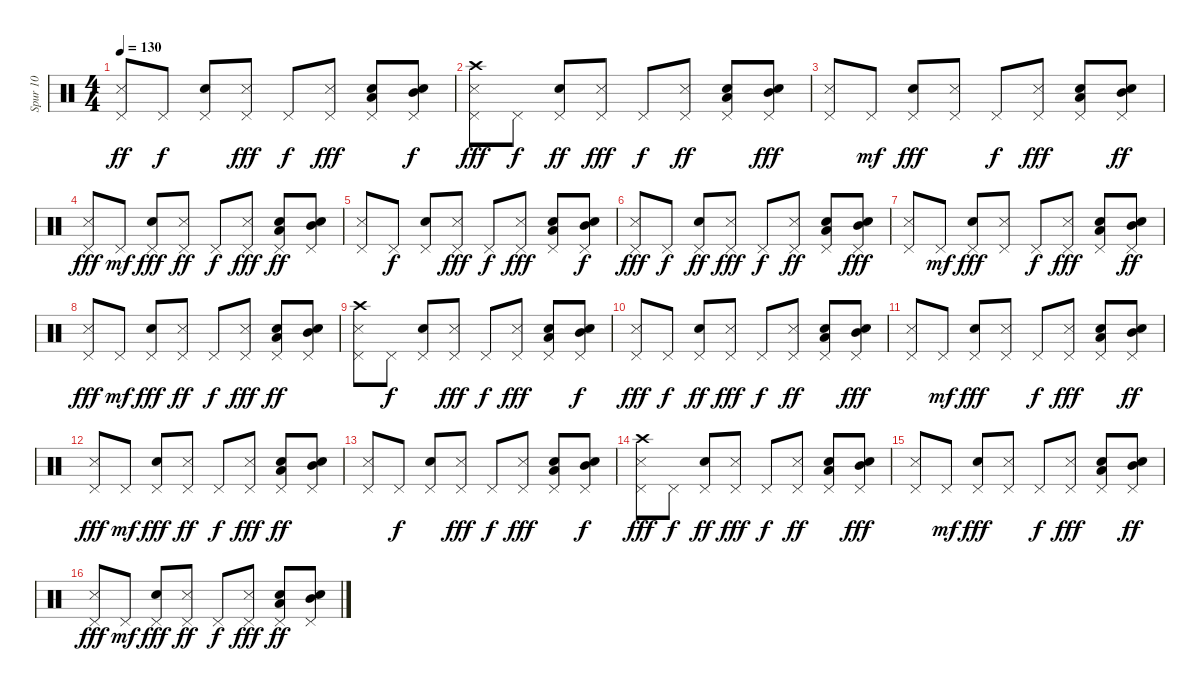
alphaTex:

\track ("Spur 10" "Spur 10") {instrument percussion}
\staff {score}
\articulation defaults
\ts (4 4)
\tempo 130
\clef neutral
\ks c
("Metronome (hit)" "Pedal Hi-Hat (hit)").8{dy ff} "Pedal Hi-Hat (hit)".8{dy f} ("Snare (hit) 2" "Pedal Hi-Hat (hit)").8 ("Metronome (hit)" "Pedal Hi-Hat (hit)").8{dy fff} "Pedal Hi-Hat (hit)".8{dy f} ("Metronome (hit)" "Pedal Hi-Hat (hit)").8{dy fff} ("Snare (hit) 2" "Low Tom (hit)" "Pedal Hi-Hat (hit)").8 ("Snare (hit) 2" "Mid Tom (hit)" "Pedal Hi-Hat (hit)").8{dy f} |
("Crash high (hit)" "Pedal Hi-Hat (hit)" "Metronome (hit)").8{dy fff} "Pedal Hi-Hat (hit)".8{dy f} ("Snare (hit) 2" "Pedal Hi-Hat (hit)").8{dy ff} ("Metronome (hit)" "Pedal Hi-Hat (hit)").8{dy fff} "Pedal Hi-Hat (hit)".8{dy f} ("Metronome (hit)" "Pedal Hi-Hat (hit)").8{dy ff} ("Low Tom (hit)" "Snare (hit) 2" "Pedal Hi-Hat (hit)").8 ("Mid Tom (hit)" "Snare (hit) 2" "Pedal Hi-Hat (hit)").8{dy fff} |
("Pedal Hi-Hat (hit)" "Metronome (hit)").8 "Pedal Hi-Hat (hit)".8{dy mf} ("Pedal Hi-Hat (hit)" "Snare (hit) 2").8{dy fff} ("Pedal Hi-Hat (hit)" "Metronome (hit)").8 "Pedal Hi-Hat (hit)".8{dy f} ("Pedal Hi-Hat (hit)" "Metronome (hit)").8{dy fff} ("Low Tom (hit)" "Pedal Hi-Hat (hit)" "Snare (hit) 2").8 ("Mid Tom (hit)" "Pedal Hi-Hat (hit)" "Snare (hit) 2").8{dy ff} |
("Pedal Hi-Hat (hit)" "Metronome (hit)").8{dy fff} "Pedal Hi-Hat (hit)".8{dy mf} ("Pedal Hi-Hat (hit)" "Snare (hit) 2").8{dy fff} ("Metronome (hit)" "Pedal Hi-Hat (hit)").8{dy ff} "Pedal Hi-Hat (hit)".8{dy f} ("Metronome (hit)" "Pedal Hi-Hat (hit)").8{dy fff} ("Snare (hit) 2" "Low Tom (hit)" "Pedal Hi-Hat (hit)").8{dy ff} ("Snare (hit) 2" "Mid Tom (hit)" "Pedal Hi-Hat (hit)").8 |
("Metronome (hit)" "Pedal Hi-Hat (hit)").8 "Pedal Hi-Hat (hit)".8{dy f} ("Snare (hit) 2" "Pedal Hi-Hat (hit)").8 ("Metronome (hit)" "Pedal Hi-Hat (hit)").8{dy fff} "Pedal Hi-Hat (hit)".8{dy f} ("Metronome (hit)" "Pedal Hi-Hat (hit)").8{dy fff} ("Snare (hit) 2" "Low Tom (hit)" "Pedal Hi-Hat (hit)").8 ("Snare (hit) 2" "Mid Tom (hit)" "Pedal Hi-Hat (hit)").8{dy f} |
("Pedal Hi-Hat (hit)" "Metronome (hit)").8{dy fff} "Pedal Hi-Hat (hit)".8{dy f} ("Snare (hit) 2" "Pedal Hi-Hat (hit)").8{dy ff} ("Metronome (hit)" "Pedal Hi-Hat (hit)").8{dy fff} "Pedal Hi-Hat (hit)".8{dy f} ("Metronome (hit)" "Pedal Hi-Hat (hit)").8{dy ff} ("Low Tom (hit)" "Snare (hit) 2" "Pedal Hi-Hat (hit)").8 ("Mid Tom (hit)" "Snare (hit) 2" "Pedal Hi-Hat (hit)").8{dy fff} |
("Pedal Hi-Hat (hit)" "Metronome (hit)").8 "Pedal Hi-Hat (hit)".8{dy mf} ("Pedal Hi-Hat (hit)" "Snare (hit) 2").8{dy fff} ("Pedal Hi-Hat (hit)" "Metronome (hit)").8 "Pedal Hi-Hat (hit)".8{dy f} ("Pedal Hi-Hat (hit)" "Metronome (hit)").8{dy fff} ("Low Tom (hit)" "Pedal Hi-Hat (hit)" "Snare (hit) 2").8 ("Mid Tom (hit)" "Pedal Hi-Hat (hit)" "Snare (hit) 2").8{dy ff} |
("Pedal Hi-Hat (hit)" "Metronome (hit)").8{dy fff} "Pedal Hi-Hat (hit)".8{dy mf} ("Pedal Hi-Hat (hit)" "Snare (hit) 2").8{dy fff} ("Metronome (hit)" "Pedal Hi-Hat (hit)").8{dy ff} "Pedal Hi-Hat (hit)".8{dy f} ("Metronome (hit)" "Pedal Hi-Hat (hit)").8{dy fff} ("Snare (hit) 2" "Low Tom (hit)" "Pedal Hi-Hat (hit)").8{dy ff} ("Snare (hit) 2" "Mid Tom (hit)" "Pedal Hi-Hat (hit)").8 |
("Crash high (hit)" "Metronome (hit)" "Pedal Hi-Hat (hit)").8 "Pedal Hi-Hat (hit)".8{dy f} ("Snare (hit) 2" "Pedal Hi-Hat (hit)").8 ("Metronome (hit)" "Pedal Hi-Hat (hit)").8{dy fff} "Pedal Hi-Hat (hit)".8{dy f} ("Metronome (hit)" "Pedal Hi-Hat (hit)").8{dy fff} ("Snare (hit) 2" "Low Tom (hit)" "Pedal Hi-Hat (hit)").8 ("Snare (hit) 2" "Mid Tom (hit)" "Pedal Hi-Hat (hit)").8{dy f} |
("Pedal Hi-Hat (hit)" "Metronome (hit)").8{dy fff} "Pedal Hi-Hat (hit)".8{dy f} ("Snare (hit) 2" "Pedal Hi-Hat (hit)").8{dy ff} ("Metronome (hit)" "Pedal Hi-Hat (hit)").8{dy fff} "Pedal Hi-Hat (hit)".8{dy f} ("Metronome (hit)" "Pedal Hi-Hat (hit)").8{dy ff} ("Low Tom (hit)" "Snare (hit) 2" "Pedal Hi-Hat (hit)").8 ("Mid Tom (hit)" "Snare (hit) 2" "Pedal Hi-Hat (hit)").8{dy fff} |
("Pedal Hi-Hat (hit)" "Metronome (hit)").8 "Pedal Hi-Hat (hit)".8{dy mf} ("Pedal Hi-Hat (hit)" "Snare (hit) 2").8{dy fff} ("Pedal Hi-Hat (hit)" "Metronome (hit)").8 "Pedal Hi-Hat (hit)".8{dy f} ("Pedal Hi-Hat (hit)" "Metronome (hit)").8{dy fff} ("Low Tom (hit)" "Pedal Hi-Hat (hit)" "Snare (hit) 2").8 ("Mid Tom (hit)" "Pedal Hi-Hat (hit)" "Snare (hit) 2").8{dy ff} |
("Pedal Hi-Hat (hit)" "Metronome (hit)").8{dy fff} "Pedal Hi-Hat (hit)".8{dy mf} ("Pedal Hi-Hat (hit)" "Snare (hit) 2").8{dy fff} ("Metronome (hit)" "Pedal Hi-Hat (hit)").8{dy ff} "Pedal Hi-Hat (hit)".8{dy f} ("Metronome (hit)" "Pedal Hi-Hat (hit)").8{dy fff} ("Snare (hit) 2" "Low Tom (hit)" "Pedal Hi-Hat (hit)").8{dy ff} ("Snare (hit) 2" "Mid Tom (hit)" "Pedal Hi-Hat (hit)").8 |
("Metronome (hit)" "Pedal Hi-Hat (hit)").8 "Pedal Hi-Hat (hit)".8{dy f} ("Snare (hit) 2" "Pedal Hi-Hat (hit)").8 ("Metronome (hit)" "Pedal Hi-Hat (hit)").8{dy fff} "Pedal Hi-Hat (hit)".8{dy f} ("Metronome (hit)" "Pedal Hi-Hat (hit)").8{dy fff} ("Snare (hit) 2" "Low Tom (hit)" "Pedal Hi-Hat (hit)").8 ("Snare (hit) 2" "Mid Tom (hit)" "Pedal Hi-Hat (hit)").8{dy f} |
("Crash high (hit)" "Pedal Hi-Hat (hit)" "Metronome (hit)").8{dy fff} "Pedal Hi-Hat (hit)".8{dy f} ("Snare (hit) 2" "Pedal Hi-Hat (hit)").8{dy ff} ("Metronome (hit)" "Pedal Hi-Hat (hit)").8{dy fff} "Pedal Hi-Hat (hit)".8{dy f} ("Metronome (hit)" "Pedal Hi-Hat (hit)").8{dy ff} ("Low Tom (hit)" "Snare (hit) 2" "Pedal Hi-Hat (hit)").8 ("Mid Tom (hit)" "Snare (hit) 2" "Pedal Hi-Hat (hit)").8{dy fff} |
("Pedal Hi-Hat (hit)" "Metronome (hit)").8 "Pedal Hi-Hat (hit)".8{dy mf} ("Pedal Hi-Hat (hit)" "Snare (hit) 2").8{dy fff} ("Pedal Hi-Hat (hit)" "Metronome (hit)").8 "Pedal Hi-Hat (hit)".8{dy f} ("Pedal Hi-Hat (hit)" "Metronome (hit)").8{dy fff} ("Low Tom (hit)" "Pedal Hi-Hat (hit)" "Snare (hit) 2").8 ("Mid Tom (hit)" "Pedal Hi-Hat (hit)" "Snare (hit) 2").8{dy ff} |
("Pedal Hi-Hat (hit)" "Metronome (hit)").8{dy fff} "Pedal Hi-Hat (hit)".8{dy mf} ("Pedal Hi-Hat (hit)" "Snare (hit) 2").8{dy fff} ("Metronome (hit)" "Pedal Hi-Hat (hit)").8{dy ff} "Pedal Hi-Hat (hit)".8{dy f} ("Metronome (hit)" "Pedal Hi-Hat (hit)").8{dy fff} ("Snare (hit) 2" "Low Tom (hit)" "Pedal Hi-Hat (hit)").8{dy ff} ("Snare (hit) 2" "Mid Tom (hit)" "Pedal Hi-Hat (hit)").8
